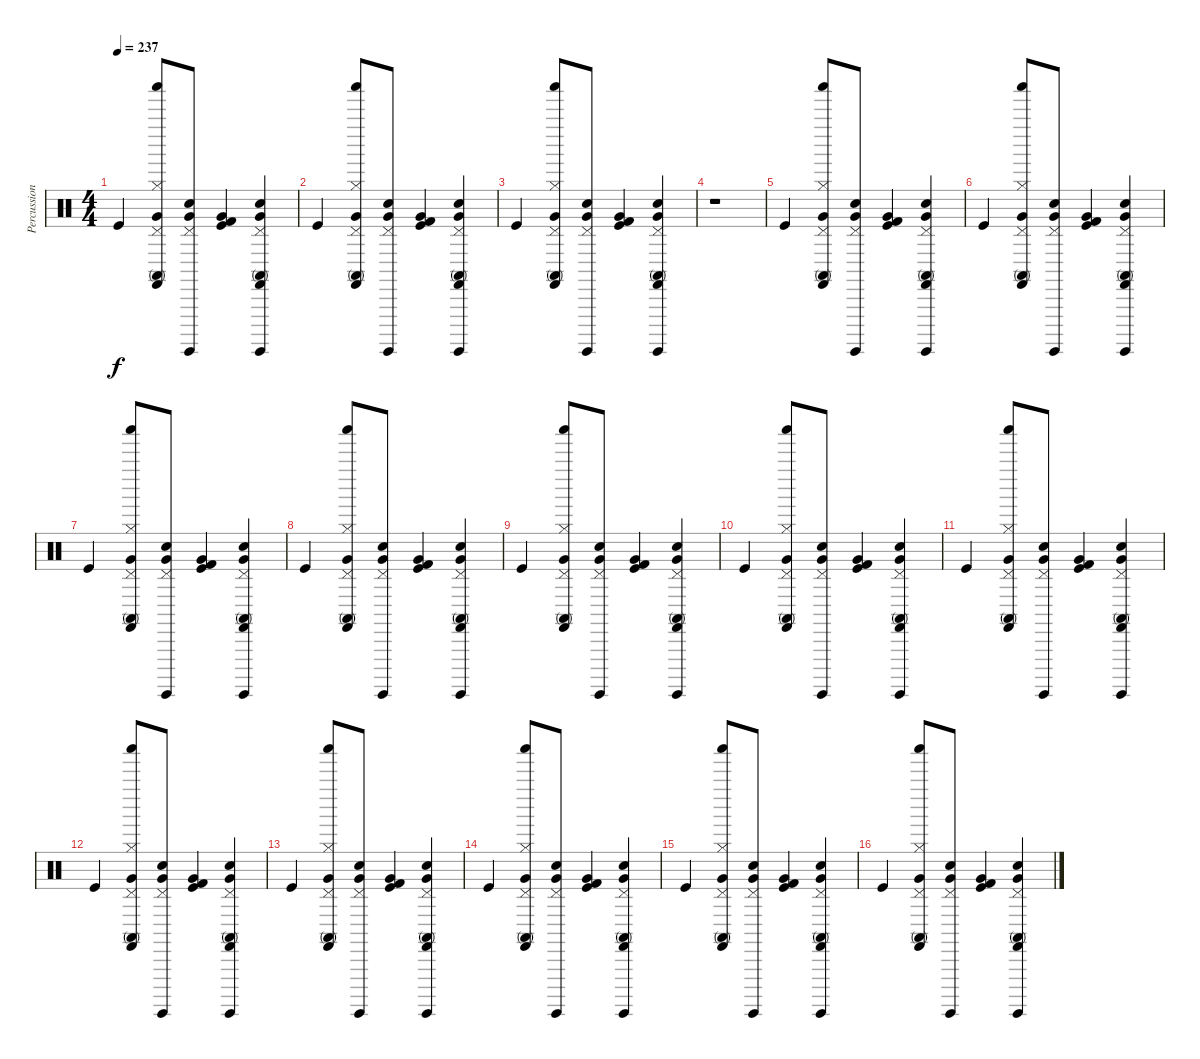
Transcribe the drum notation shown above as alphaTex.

\track ("Percussions" "Percussion") {instrument percussion}
\staff {score}
\articulation defaults
\ts (4 4)
\tempo 237
\clef neutral
\ks c "Kick (hit)".4{dy f}
("Hi-Hat (closed)" "Shaker (hit)" "Pedal Hi-Hat (hit)" "Very Low Tom (hit)" "Conga high (mute)" "Castanets (hit)").8 ("Hand Clap (hit)" "Surdo (hit)" "Pedal Hi-Hat (hit)" "Very Low Tom (hit)").8 ("Kick (hit)" "Kick (hit) 2" "Very Low Tom (hit)").4 ("Hand Clap (hit)" "Surdo (hit)" "Pedal Hi-Hat (hit)" "Very Low Tom (hit)" "Conga high (mute)" "Castanets (hit)").4 |
"Kick (hit)".4 ("Hi-Hat (closed)" "Shaker (hit)" "Pedal Hi-Hat (hit)" "Very Low Tom (hit)" "Conga high (mute)" "Castanets (hit)").8 ("Hand Clap (hit)" "Surdo (hit)" "Pedal Hi-Hat (hit)" "Very Low Tom (hit)").8 ("Kick (hit)" "Kick (hit) 2" "Very Low Tom (hit)").4 ("Hand Clap (hit)" "Surdo (hit)" "Pedal Hi-Hat (hit)" "Very Low Tom (hit)" "Conga high (mute)" "Castanets (hit)").4 |
"Kick (hit)".4 ("Hi-Hat (closed)" "Shaker (hit)" "Pedal Hi-Hat (hit)" "Very Low Tom (hit)" "Conga high (mute)" "Castanets (hit)").8 ("Hand Clap (hit)" "Surdo (hit)" "Pedal Hi-Hat (hit)" "Very Low Tom (hit)").8 ("Kick (hit)" "Kick (hit) 2" "Very Low Tom (hit)").4 ("Hand Clap (hit)" "Surdo (hit)" "Pedal Hi-Hat (hit)" "Very Low Tom (hit)" "Conga high (mute)" "Castanets (hit)").4 |
r.1 |
"Kick (hit)".4 ("Hi-Hat (closed)" "Shaker (hit)" "Pedal Hi-Hat (hit)" "Very Low Tom (hit)" "Conga high (mute)" "Castanets (hit)").8 ("Hand Clap (hit)" "Surdo (hit)" "Pedal Hi-Hat (hit)" "Very Low Tom (hit)").8 ("Kick (hit)" "Kick (hit) 2" "Very Low Tom (hit)").4 ("Hand Clap (hit)" "Surdo (hit)" "Pedal Hi-Hat (hit)" "Very Low Tom (hit)" "Conga high (mute)" "Castanets (hit)").4 |
"Kick (hit)".4 ("Hi-Hat (closed)" "Shaker (hit)" "Pedal Hi-Hat (hit)" "Very Low Tom (hit)" "Conga high (mute)" "Castanets (hit)").8 ("Hand Clap (hit)" "Surdo (hit)" "Pedal Hi-Hat (hit)" "Very Low Tom (hit)").8 ("Kick (hit)" "Kick (hit) 2" "Very Low Tom (hit)").4 ("Hand Clap (hit)" "Surdo (hit)" "Pedal Hi-Hat (hit)" "Very Low Tom (hit)" "Conga high (mute)" "Castanets (hit)").4 |
"Kick (hit)".4 ("Hi-Hat (closed)" "Shaker (hit)" "Pedal Hi-Hat (hit)" "Very Low Tom (hit)" "Conga high (mute)" "Castanets (hit)").8 ("Hand Clap (hit)" "Surdo (hit)" "Pedal Hi-Hat (hit)" "Very Low Tom (hit)").8 ("Kick (hit)" "Kick (hit) 2" "Very Low Tom (hit)").4 ("Hand Clap (hit)" "Surdo (hit)" "Pedal Hi-Hat (hit)" "Very Low Tom (hit)" "Conga high (mute)" "Castanets (hit)").4 |
"Kick (hit)".4 ("Hi-Hat (closed)" "Shaker (hit)" "Pedal Hi-Hat (hit)" "Very Low Tom (hit)" "Conga high (mute)" "Castanets (hit)").8 ("Hand Clap (hit)" "Surdo (hit)" "Pedal Hi-Hat (hit)" "Very Low Tom (hit)").8 ("Kick (hit)" "Kick (hit) 2" "Very Low Tom (hit)").4 ("Hand Clap (hit)" "Surdo (hit)" "Pedal Hi-Hat (hit)" "Very Low Tom (hit)" "Conga high (mute)" "Castanets (hit)").4 |
"Kick (hit)".4 ("Hi-Hat (closed)" "Shaker (hit)" "Pedal Hi-Hat (hit)" "Very Low Tom (hit)" "Conga high (mute)" "Castanets (hit)").8 ("Hand Clap (hit)" "Surdo (hit)" "Pedal Hi-Hat (hit)" "Very Low Tom (hit)").8 ("Kick (hit)" "Kick (hit) 2" "Very Low Tom (hit)").4 ("Hand Clap (hit)" "Surdo (hit)" "Pedal Hi-Hat (hit)" "Very Low Tom (hit)" "Conga high (mute)" "Castanets (hit)").4 |
"Kick (hit)".4 ("Hi-Hat (closed)" "Shaker (hit)" "Pedal Hi-Hat (hit)" "Very Low Tom (hit)" "Conga high (mute)" "Castanets (hit)").8 ("Hand Clap (hit)" "Surdo (hit)" "Pedal Hi-Hat (hit)" "Very Low Tom (hit)").8 ("Kick (hit)" "Kick (hit) 2" "Very Low Tom (hit)").4 ("Hand Clap (hit)" "Surdo (hit)" "Pedal Hi-Hat (hit)" "Very Low Tom (hit)" "Conga high (mute)" "Castanets (hit)").4 |
"Kick (hit)".4 ("Hi-Hat (closed)" "Shaker (hit)" "Pedal Hi-Hat (hit)" "Very Low Tom (hit)" "Conga high (mute)" "Castanets (hit)").8 ("Hand Clap (hit)" "Surdo (hit)" "Pedal Hi-Hat (hit)" "Very Low Tom (hit)").8 ("Kick (hit)" "Kick (hit) 2" "Very Low Tom (hit)").4 ("Hand Clap (hit)" "Surdo (hit)" "Pedal Hi-Hat (hit)" "Very Low Tom (hit)" "Conga high (mute)" "Castanets (hit)").4 |
"Kick (hit)".4 ("Hi-Hat (closed)" "Shaker (hit)" "Pedal Hi-Hat (hit)" "Very Low Tom (hit)" "Conga high (mute)" "Castanets (hit)").8 ("Hand Clap (hit)" "Surdo (hit)" "Pedal Hi-Hat (hit)" "Very Low Tom (hit)").8 ("Kick (hit)" "Kick (hit) 2" "Very Low Tom (hit)").4 ("Hand Clap (hit)" "Surdo (hit)" "Pedal Hi-Hat (hit)" "Very Low Tom (hit)" "Conga high (mute)" "Castanets (hit)").4 |
"Kick (hit)".4 ("Hi-Hat (closed)" "Shaker (hit)" "Pedal Hi-Hat (hit)" "Very Low Tom (hit)" "Conga high (mute)" "Castanets (hit)").8 ("Hand Clap (hit)" "Surdo (hit)" "Pedal Hi-Hat (hit)" "Very Low Tom (hit)").8 ("Kick (hit)" "Kick (hit) 2" "Very Low Tom (hit)").4 ("Hand Clap (hit)" "Surdo (hit)" "Pedal Hi-Hat (hit)" "Very Low Tom (hit)" "Conga high (mute)" "Castanets (hit)").4 |
"Kick (hit)".4 ("Hi-Hat (closed)" "Shaker (hit)" "Pedal Hi-Hat (hit)" "Very Low Tom (hit)" "Conga high (mute)" "Castanets (hit)").8 ("Hand Clap (hit)" "Surdo (hit)" "Pedal Hi-Hat (hit)" "Very Low Tom (hit)").8 ("Kick (hit)" "Kick (hit) 2" "Very Low Tom (hit)").4 ("Hand Clap (hit)" "Surdo (hit)" "Pedal Hi-Hat (hit)" "Very Low Tom (hit)" "Conga high (mute)" "Castanets (hit)").4 |
"Kick (hit)".4 ("Hi-Hat (closed)" "Shaker (hit)" "Pedal Hi-Hat (hit)" "Very Low Tom (hit)" "Conga high (mute)" "Castanets (hit)").8 ("Hand Clap (hit)" "Surdo (hit)" "Pedal Hi-Hat (hit)" "Very Low Tom (hit)").8 ("Kick (hit)" "Kick (hit) 2" "Very Low Tom (hit)").4 ("Hand Clap (hit)" "Surdo (hit)" "Pedal Hi-Hat (hit)" "Very Low Tom (hit)" "Conga high (mute)" "Castanets (hit)").4 |
"Kick (hit)".4 ("Hi-Hat (closed)" "Shaker (hit)" "Pedal Hi-Hat (hit)" "Very Low Tom (hit)" "Conga high (mute)" "Castanets (hit)").8 ("Hand Clap (hit)" "Surdo (hit)" "Pedal Hi-Hat (hit)" "Very Low Tom (hit)").8 ("Kick (hit)" "Kick (hit) 2" "Very Low Tom (hit)").4 ("Hand Clap (hit)" "Surdo (hit)" "Pedal Hi-Hat (hit)" "Very Low Tom (hit)" "Conga high (mute)" "Castanets (hit)").4
